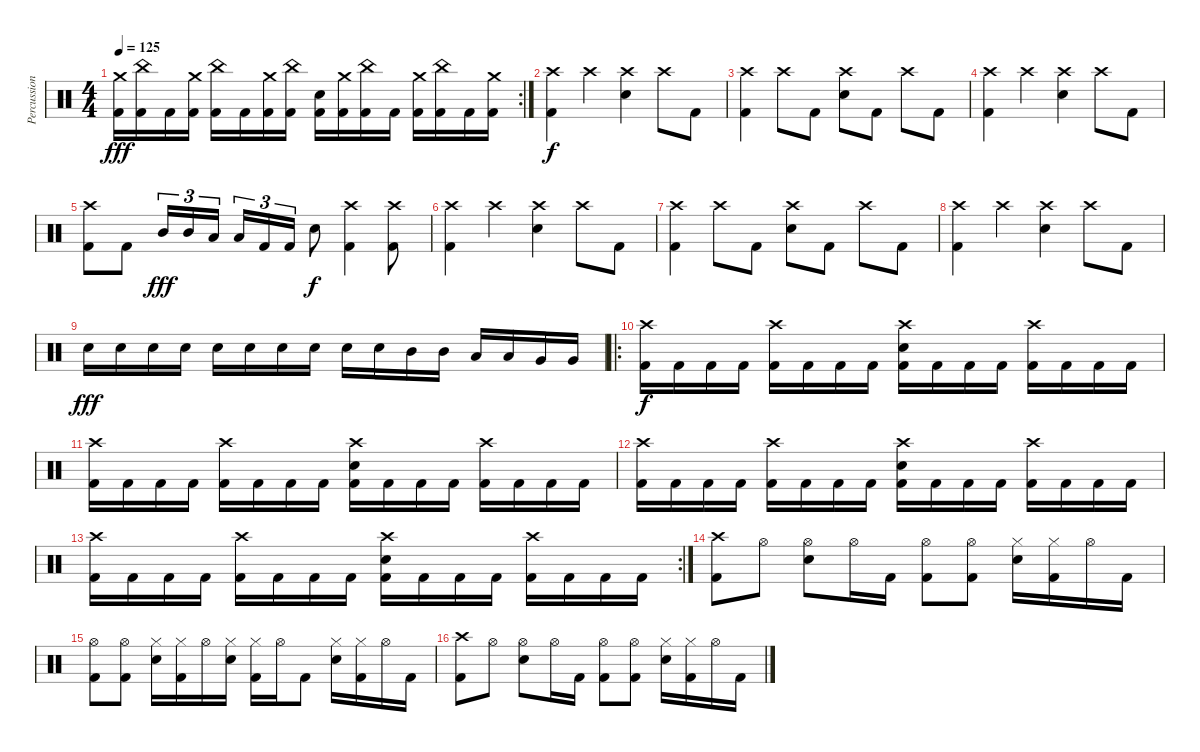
\track ("Percussions" "Percussion") {instrument percussion}
\staff {score}
\articulation defaults
\rc 2
\ts (4 4)
\tempo 125
\clef neutral
\ks c
("Crash medium (hit)" "Kick (hit) 2").16{dy fff} ("China (hit)" "Kick (hit) 2").16 "Kick (hit) 2".16 ("Crash medium (hit)" "Kick (hit) 2").16 ("China (hit)" "Kick (hit) 2").16 "Kick (hit) 2".16 ("Crash medium (hit)" "Kick (hit) 2").16 ("China (hit)" "Kick (hit) 2").16 ("Electric Snare (hit)" "Kick (hit) 2").16 ("Crash medium (hit)" "Kick (hit) 2").16 ("China (hit)" "Kick (hit) 2").16 "Kick (hit) 2".16 ("Crash medium (hit)" "Kick (hit) 2").16 ("China (hit)" "Kick (hit) 2").16 "Kick (hit) 2".16 ("Crash medium (hit)" "Kick (hit) 2").16 |
("Crash high (hit)" "Kick (hit) 2").4{dy f} "Crash high (hit)".4 ("Crash high (hit)" "Electric Snare (hit)").4 "Crash high (hit)".8 "Kick (hit) 2".8 |
("Crash high (hit)" "Kick (hit) 2").4 "Crash high (hit)".8 "Kick (hit) 2".8 ("Crash high (hit)" "Electric Snare (hit)").8 "Kick (hit) 2".8 "Crash high (hit)".8 "Kick (hit) 2".8 |
("Crash high (hit)" "Kick (hit) 2").4 "Crash high (hit)".4 ("Crash high (hit)" "Electric Snare (hit)").4 "Crash high (hit)".8 "Kick (hit) 2".8 |
("Crash high (hit)" "Kick (hit) 2").8 "Kick (hit) 2".8 "Mid Tom (hit)".16{tu (3 2) dy fff} "Mid Tom (hit)".16{tu (3 2)} "Low Tom (hit)".16{tu (3 2) beam splitsecondary} "Low Tom (hit)".16{tu (3 2)} "Kick (hit) 2".16{tu (3 2)} "Kick (hit) 2".16{tu (3 2)} "Electric Snare (hit)".8{dy f} ("Crash high (hit)" "Kick (hit) 2").4 ("Crash high (hit)" "Kick (hit) 2").8 |
("Crash high (hit)" "Kick (hit) 2").4 "Crash high (hit)".4 ("Crash high (hit)" "Electric Snare (hit)").4 "Crash high (hit)".8 "Kick (hit) 2".8 |
("Crash high (hit)" "Kick (hit) 2").4 "Crash high (hit)".8 "Kick (hit) 2".8 ("Crash high (hit)" "Electric Snare (hit)").8 "Kick (hit) 2".8 "Crash high (hit)".8 "Kick (hit) 2".8 |
("Crash high (hit)" "Kick (hit) 2").4 "Crash high (hit)".4 ("Crash high (hit)" "Electric Snare (hit)").4 "Crash high (hit)".8 "Kick (hit) 2".8 |
"Electric Snare (hit)".16{dy fff} "Electric Snare (hit)".16 "Electric Snare (hit)".16 "Electric Snare (hit)".16 "Electric Snare (hit)".16 "Electric Snare (hit)".16 "Electric Snare (hit)".16 "Electric Snare (hit)".16 "Electric Snare (hit)".16 "Electric Snare (hit)".16 "Mid Tom (hit)".16 "Mid Tom (hit)".16 "Low Tom (hit)".16 "Low Tom (hit)".16 "Very Low Tom (hit)".16 "Very Low Tom (hit)".16 |
\ro
("Crash high (hit)" "Kick (hit) 2").16{dy f} "Kick (hit) 2".16 "Kick (hit) 2".16 "Kick (hit) 2".16 ("Crash high (hit)" "Kick (hit) 2").16 "Kick (hit) 2".16 "Kick (hit) 2".16 "Kick (hit) 2".16 ("Crash high (hit)" "Electric Snare (hit)" "Kick (hit) 2").16 "Kick (hit) 2".16 "Kick (hit) 2".16 "Kick (hit) 2".16 ("Crash high (hit)" "Kick (hit) 2").16 "Kick (hit) 2".16 "Kick (hit) 2".16 "Kick (hit) 2".16 |
("Crash high (hit)" "Kick (hit) 2").16 "Kick (hit) 2".16 "Kick (hit) 2".16 "Kick (hit) 2".16 ("Crash high (hit)" "Kick (hit) 2").16 "Kick (hit) 2".16 "Kick (hit) 2".16 "Kick (hit) 2".16 ("Crash high (hit)" "Electric Snare (hit)" "Kick (hit) 2").16 "Kick (hit) 2".16 "Kick (hit) 2".16 "Kick (hit) 2".16 ("Crash high (hit)" "Kick (hit) 2").16 "Kick (hit) 2".16 "Kick (hit) 2".16 "Kick (hit) 2".16 |
("Crash high (hit)" "Kick (hit) 2").16 "Kick (hit) 2".16 "Kick (hit) 2".16 "Kick (hit) 2".16 ("Crash high (hit)" "Kick (hit) 2").16 "Kick (hit) 2".16 "Kick (hit) 2".16 "Kick (hit) 2".16 ("Crash high (hit)" "Electric Snare (hit)" "Kick (hit) 2").16 "Kick (hit) 2".16 "Kick (hit) 2".16 "Kick (hit) 2".16 ("Crash high (hit)" "Kick (hit) 2").16 "Kick (hit) 2".16 "Kick (hit) 2".16 "Kick (hit) 2".16 |
\rc 2
("Crash high (hit)" "Kick (hit) 2").16 "Kick (hit) 2".16 "Kick (hit) 2".16 "Kick (hit) 2".16 ("Crash high (hit)" "Kick (hit) 2").16 "Kick (hit) 2".16 "Kick (hit) 2".16 "Kick (hit) 2".16 ("Crash high (hit)" "Electric Snare (hit)" "Kick (hit) 2").16 "Kick (hit) 2".16 "Kick (hit) 2".16 "Kick (hit) 2".16 ("Crash high (hit)" "Kick (hit) 2").16 "Kick (hit) 2".16 "Kick (hit) 2".16 "Kick (hit) 2".16 |
("Crash high (hit)" "Kick (hit) 2").8 "Hi-Hat (open)".8 ("Hi-Hat (open)" "Electric Snare (hit)").8 "Hi-Hat (open)".16 "Kick (hit) 2".16 ("Hi-Hat (open)" "Kick (hit) 2").8 ("Hi-Hat (open)" "Kick (hit) 2").8 ("Hi-Hat (closed)" "Electric Snare (hit)").16 ("Hi-Hat (closed)" "Kick (hit) 2").16 "Hi-Hat (open)".16 "Kick (hit) 2".16 |
("Hi-Hat (open)" "Kick (hit) 2").8 ("Hi-Hat (open)" "Kick (hit) 2").8 ("Hi-Hat (closed)" "Electric Snare (hit)").16 ("Hi-Hat (closed)" "Kick (hit) 2").16 "Hi-Hat (open)".16 ("Hi-Hat (closed)" "Electric Snare (hit)").16 ("Hi-Hat (closed)" "Kick (hit) 2").16 "Hi-Hat (open)".16 "Kick (hit) 2".8 ("Hi-Hat (closed)" "Electric Snare (hit)").16 ("Hi-Hat (closed)" "Kick (hit) 2").16 "Hi-Hat (open)".16 "Kick (hit) 2".16 |
("Crash high (hit)" "Kick (hit) 2").8 "Hi-Hat (open)".8 ("Hi-Hat (open)" "Electric Snare (hit)").8 "Hi-Hat (open)".16 "Kick (hit) 2".16 ("Hi-Hat (open)" "Kick (hit) 2").8 ("Hi-Hat (open)" "Kick (hit) 2").8 ("Hi-Hat (closed)" "Electric Snare (hit)").16 ("Hi-Hat (closed)" "Kick (hit) 2").16 "Hi-Hat (open)".16 "Kick (hit) 2".16
